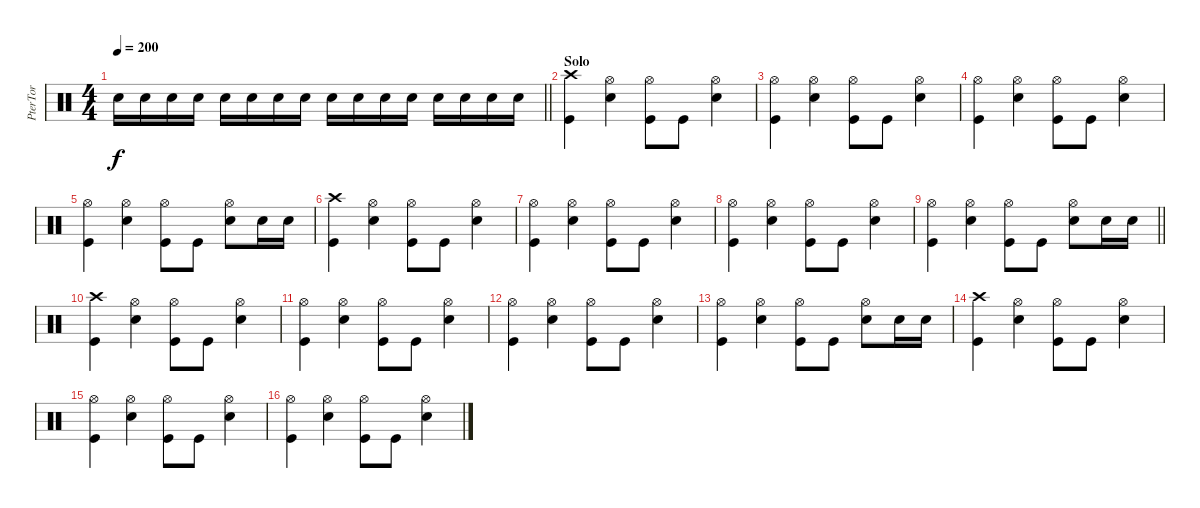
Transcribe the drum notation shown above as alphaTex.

\track ("PterTor" "PterTor") {instrument percussion}
\staff {score}
\articulation defaults
\ts (4 4)
\tempo 200
\clef neutral
\barLineRight lightlight
\ks c "Electric Snare (hit)".16{dy f} "Electric Snare (hit)".16 "Electric Snare (hit)".16 "Electric Snare (hit)".16 "Electric Snare (hit)".16 "Electric Snare (hit)".16 "Electric Snare (hit)".16 "Electric Snare (hit)".16 "Electric Snare (hit)".16 "Electric Snare (hit)".16 "Electric Snare (hit)".16 "Electric Snare (hit)".16 "Electric Snare (hit)".16 "Electric Snare (hit)".16 "Electric Snare (hit)".16 "Electric Snare (hit)".16
|
\section ("" "Solo")
("Crash high (hit)" "Kick (hit)").4 ("Hi-Hat (open)" "Snare (hit) 2").4 ("Hi-Hat (open)" "Kick (hit)").8 "Kick (hit)".8 ("Hi-Hat (open)" "Snare (hit) 2").4 |
("Hi-Hat (open)" "Kick (hit)").4 ("Hi-Hat (open)" "Snare (hit) 2").4 ("Hi-Hat (open)" "Kick (hit)").8 "Kick (hit)".8 ("Hi-Hat (open)" "Snare (hit) 2").4 |
("Hi-Hat (open)" "Kick (hit)").4 ("Hi-Hat (open)" "Snare (hit) 2").4 ("Hi-Hat (open)" "Kick (hit)").8 "Kick (hit)".8 ("Hi-Hat (open)" "Snare (hit) 2").4 |
("Hi-Hat (open)" "Kick (hit)").4 ("Hi-Hat (open)" "Snare (hit) 2").4 ("Hi-Hat (open)" "Kick (hit)").8 "Kick (hit)".8 ("Hi-Hat (open)" "Snare (hit) 2").8 "Snare (hit) 2".16 "Snare (hit) 2".16 |
("Crash high (hit)" "Kick (hit)").4 ("Hi-Hat (open)" "Snare (hit) 2").4 ("Hi-Hat (open)" "Kick (hit)").8 "Kick (hit)".8 ("Hi-Hat (open)" "Snare (hit) 2").4 |
("Hi-Hat (open)" "Kick (hit)").4 ("Hi-Hat (open)" "Snare (hit) 2").4 ("Hi-Hat (open)" "Kick (hit)").8 "Kick (hit)".8 ("Hi-Hat (open)" "Snare (hit) 2").4 |
("Hi-Hat (open)" "Kick (hit)").4 ("Hi-Hat (open)" "Snare (hit) 2").4 ("Hi-Hat (open)" "Kick (hit)").8 "Kick (hit)".8 ("Hi-Hat (open)" "Snare (hit) 2").4 |
\barLineRight lightlight
("Hi-Hat (open)" "Kick (hit)").4 ("Hi-Hat (open)" "Snare (hit) 2").4 ("Hi-Hat (open)" "Kick (hit)").8 "Kick (hit)".8 ("Hi-Hat (open)" "Snare (hit) 2").8 "Snare (hit) 2".16 "Snare (hit) 2".16 |
("Crash high (hit)" "Kick (hit)").4 ("Hi-Hat (open)" "Snare (hit) 2").4 ("Hi-Hat (open)" "Kick (hit)").8 "Kick (hit)".8 ("Hi-Hat (open)" "Snare (hit) 2").4 |
("Hi-Hat (open)" "Kick (hit)").4 ("Hi-Hat (open)" "Snare (hit) 2").4 ("Hi-Hat (open)" "Kick (hit)").8 "Kick (hit)".8 ("Hi-Hat (open)" "Snare (hit) 2").4 |
("Hi-Hat (open)" "Kick (hit)").4 ("Hi-Hat (open)" "Snare (hit) 2").4 ("Hi-Hat (open)" "Kick (hit)").8 "Kick (hit)".8 ("Hi-Hat (open)" "Snare (hit) 2").4 |
("Hi-Hat (open)" "Kick (hit)").4 ("Hi-Hat (open)" "Snare (hit) 2").4 ("Hi-Hat (open)" "Kick (hit)").8 "Kick (hit)".8 ("Hi-Hat (open)" "Snare (hit) 2").8 "Snare (hit) 2".16 "Snare (hit) 2".16 |
("Crash high (hit)" "Kick (hit)").4 ("Hi-Hat (open)" "Snare (hit) 2").4 ("Hi-Hat (open)" "Kick (hit)").8 "Kick (hit)".8 ("Hi-Hat (open)" "Snare (hit) 2").4 |
("Hi-Hat (open)" "Kick (hit)").4 ("Hi-Hat (open)" "Snare (hit) 2").4 ("Hi-Hat (open)" "Kick (hit)").8 "Kick (hit)".8 ("Hi-Hat (open)" "Snare (hit) 2").4 |
("Hi-Hat (open)" "Kick (hit)").4 ("Hi-Hat (open)" "Snare (hit) 2").4 ("Hi-Hat (open)" "Kick (hit)").8 "Kick (hit)".8 ("Hi-Hat (open)" "Snare (hit) 2").4
